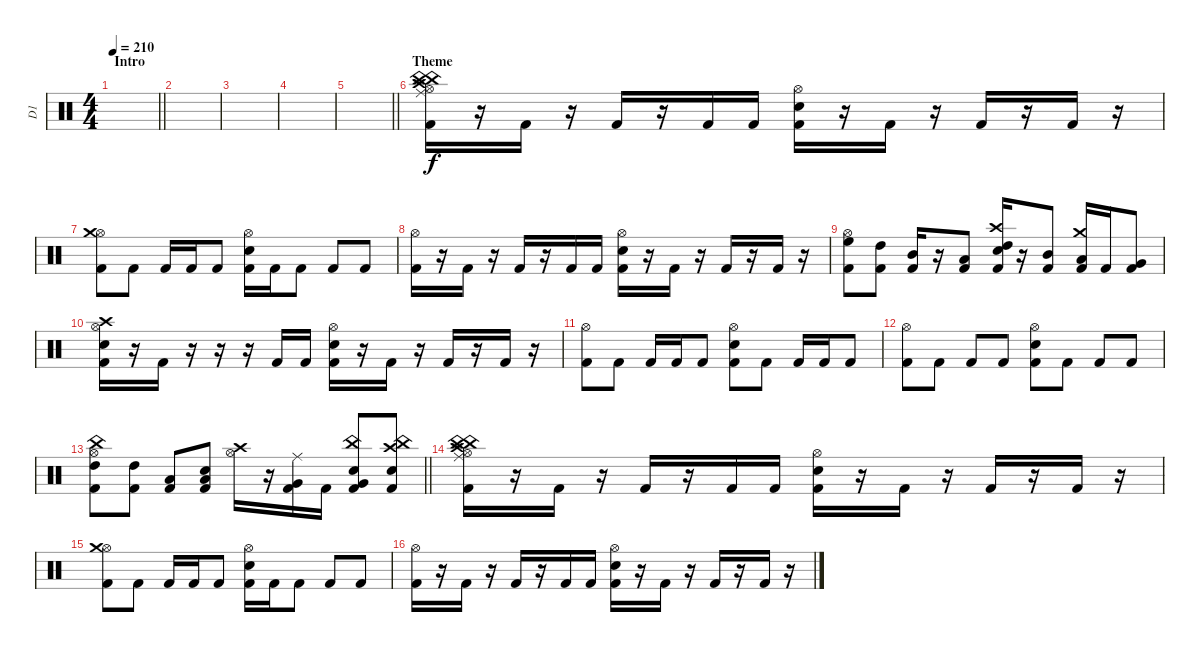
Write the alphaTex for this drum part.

\track ("D1" "D1") {instrument percussion}
\staff {score}
\articulation defaults
\ts (4 4)
\section ("" "Intro")
\tempo 210
\clef neutral
\barLineRight lightlight
\ks c
|
|
|
|
\barLineRight lightlight
|
\section ("" "Theme")
("Hi-Hat (open)" "Kick (hit) 2" "China (hit)" "China (hit)" "Crash high (hit)" "Ride (middle)").16 r.16 "Kick (hit) 2".16 r.16 "Kick (hit) 2".16 r.16 "Kick (hit) 2".16 "Kick (hit) 2".16 ("Snare (hit) 2" "Kick (hit) 2" "Hi-Hat (open)").16 r.16 "Kick (hit) 2".16 r.16 "Kick (hit) 2".16 r.16 "Kick (hit) 2".16 r.16 |
("Kick (hit) 2" "Hi-Hat (open)" "Crash medium (hit)").8 "Kick (hit) 2".8 "Kick (hit) 2".16 "Kick (hit) 2".16 "Kick (hit) 2".8 ("Kick (hit) 2" "Snare (hit) 2" "Hi-Hat (open)").16 "Kick (hit) 2".16 "Kick (hit) 2".8 "Kick (hit) 2".8 "Kick (hit) 2".8 |
("Hi-Hat (open)" "Kick (hit) 2").16 r.16 "Kick (hit) 2".16 r.16 "Kick (hit) 2".16 r.16 "Kick (hit) 2".16 "Kick (hit) 2".16 ("Snare (hit) 2" "Kick (hit) 2" "Hi-Hat (open)").16 r.16 "Kick (hit) 2".16 r.16 "Kick (hit) 2".16 r.16 "Kick (hit) 2".16 r.16 |
("Kick (hit) 2" "Hi-Hat (open)" "High Floor Tom (hit)").8 ("Kick (hit) 2" "High Tom (hit)").8 ("Kick (hit) 2" "Mid Tom (hit)").16 r.16 ("Kick (hit) 2" "Low Tom (hit)").8 ("Kick (hit) 2" "Snare (hit) 2" "Crash high (hit)" "High Tom (hit)").16 r.16 ("Kick (hit) 2" "Mid Tom (hit)").8 ("Kick (hit) 2" "Crash medium (hit)" "Low Tom (hit)").16 "Kick (hit) 2".16 ("Kick (hit) 2" "Very Low Tom (hit)").8 |
("Hi-Hat (open)" "Kick (hit) 2" "Snare (hit) 2" "Crash high (hit)").16 r.16 "Kick (hit) 2".16 r.16 r.16 r.16 "Kick (hit) 2".16 "Kick (hit) 2".16 ("Snare (hit) 2" "Kick (hit) 2" "Hi-Hat (open)").16 r.16 "Kick (hit) 2".16 r.16 "Kick (hit) 2".16 r.16 "Kick (hit) 2".16 r.16 |
("Kick (hit) 2" "Hi-Hat (open)").8 "Kick (hit) 2".8 "Kick (hit) 2".16 "Kick (hit) 2".16 "Kick (hit) 2".8 ("Kick (hit) 2" "Snare (hit) 2" "Hi-Hat (open)").8 "Kick (hit) 2".8 "Kick (hit) 2".16 "Kick (hit) 2".16 "Kick (hit) 2".8 |
("Kick (hit) 2" "Hi-Hat (open)").8 "Kick (hit) 2".8 "Kick (hit) 2".8 "Kick (hit) 2".8 ("Kick (hit) 2" "Snare (hit) 2" "Hi-Hat (open)").8 "Kick (hit) 2".8 "Kick (hit) 2".8 "Kick (hit) 2".8 |
\barLineRight lightlight
("Kick (hit) 2" "High Tom (hit)" "Hi-Hat (open)" "China (hit)").8 ("Kick (hit) 2" "High Tom (hit)").8 ("Kick (hit) 2" "Low Tom (hit)").8 ("Kick (hit) 2" "Low Tom (hit)" "Snare (hit) 2").8 ("Hi-Hat (open)" "Crash high (hit)").16 r.16 ("Kick (hit) 2" "Very Low Tom (hit)" "Ride (middle)").16 "Kick (hit) 2".16 ("Kick (hit) 2" "Very Low Tom (hit)" "Snare (hit) 2" "China (hit)").8 ("China (hit)" "Kick (hit) 2" "Snare (hit) 2" "Crash high (hit)").8 |
\section ("" "")
("Hi-Hat (open)" "Kick (hit) 2" "China (hit)" "China (hit)" "Crash high (hit)" "Ride (middle)").16 r.16 "Kick (hit) 2".16 r.16 "Kick (hit) 2".16 r.16 "Kick (hit) 2".16 "Kick (hit) 2".16 ("Snare (hit) 2" "Kick (hit) 2" "Hi-Hat (open)").16 r.16 "Kick (hit) 2".16 r.16 "Kick (hit) 2".16 r.16 "Kick (hit) 2".16 r.16 |
("Kick (hit) 2" "Hi-Hat (open)" "Crash medium (hit)").8 "Kick (hit) 2".8 "Kick (hit) 2".16 "Kick (hit) 2".16 "Kick (hit) 2".8 ("Kick (hit) 2" "Snare (hit) 2" "Hi-Hat (open)").16 "Kick (hit) 2".16 "Kick (hit) 2".8 "Kick (hit) 2".8 "Kick (hit) 2".8 |
("Hi-Hat (open)" "Kick (hit) 2").16 r.16 "Kick (hit) 2".16 r.16 "Kick (hit) 2".16 r.16 "Kick (hit) 2".16 "Kick (hit) 2".16 ("Snare (hit) 2" "Kick (hit) 2" "Hi-Hat (open)").16 r.16 "Kick (hit) 2".16 r.16 "Kick (hit) 2".16 r.16 "Kick (hit) 2".16 r.16
